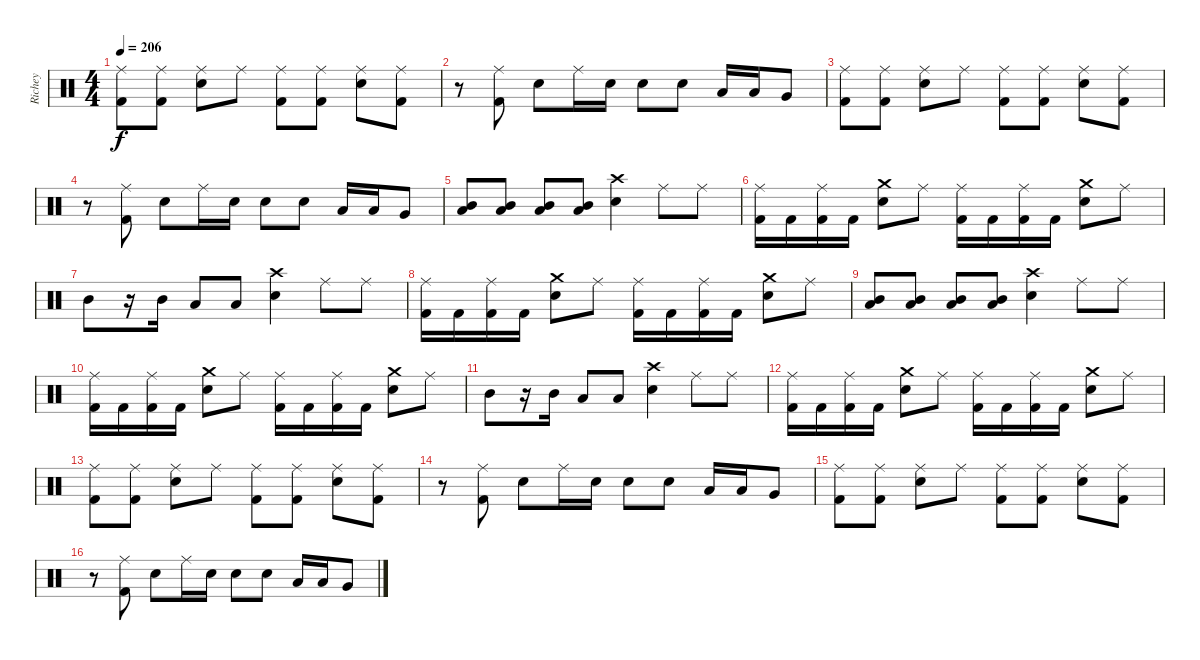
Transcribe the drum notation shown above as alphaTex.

\track ("Richey" "Richey") {instrument percussion}
\staff {score}
\articulation defaults
\ts (4 4)
\tempo 206
\clef neutral
\ks c
("Ride (middle)" "Kick (hit) 2").8{dy f} ("Ride (middle)" "Kick (hit) 2").8 ("Ride (middle)" "Snare (hit) 2").8 "Ride (middle)".8 ("Ride (middle)" "Kick (hit) 2").8 ("Ride (middle)" "Kick (hit) 2").8 ("Ride (middle)" "Snare (hit) 2").8 ("Ride (middle)" "Kick (hit) 2").8 |
r.8 ("Ride (middle)" "Kick (hit) 2").8 "Snare (hit) 2".8 "Ride (middle)".16 "Snare (hit) 2".16 "Snare (hit) 2".8 "Snare (hit) 2".8 "Low Tom (hit)".16 "Low Tom (hit)".16 "Very Low Tom (hit)".8 |
("Ride (middle)" "Kick (hit) 2").8 ("Ride (middle)" "Kick (hit) 2").8 ("Ride (middle)" "Snare (hit) 2").8 "Ride (middle)".8 ("Ride (middle)" "Kick (hit) 2").8 ("Ride (middle)" "Kick (hit) 2").8 ("Ride (middle)" "Snare (hit) 2").8 ("Ride (middle)" "Kick (hit) 2").8 |
r.8 ("Ride (middle)" "Kick (hit) 2").8 "Snare (hit) 2".8 "Ride (middle)".16 "Snare (hit) 2".16 "Snare (hit) 2".8 "Snare (hit) 2".8 "Low Tom (hit)".16 "Low Tom (hit)".16 "Very Low Tom (hit)".8 |
("Mid Tom (hit)" "Low Tom (hit)").8 ("Mid Tom (hit)" "Low Tom (hit)").8 ("Mid Tom (hit)" "Low Tom (hit)").8 ("Mid Tom (hit)" "Low Tom (hit)").8 ("Crash high (hit)" "Snare (hit) 2").4 "Ride (middle)".8 "Ride (middle)".8 |
("Ride (middle)" "Kick (hit) 2").16 "Kick (hit) 2".16 ("Ride (middle)" "Kick (hit) 2").16 "Kick (hit) 2".16 ("Crash medium (hit)" "Snare (hit) 2").8 "Ride (middle)".8 ("Ride (middle)" "Kick (hit) 2").16 "Kick (hit) 2".16 ("Ride (middle)" "Kick (hit) 2").16 "Kick (hit) 2".16 ("Crash medium (hit)" "Snare (hit) 2").8 "Ride (middle)".8 |
"Mid Tom (hit)".8 r.16 "Mid Tom (hit)".16 "Low Tom (hit)".8 "Low Tom (hit)".8 ("Crash high (hit)" "Snare (hit) 2").4 "Ride (middle)".8 "Ride (middle)".8 |
("Ride (middle)" "Kick (hit) 2").16 "Kick (hit) 2".16 ("Ride (middle)" "Kick (hit) 2").16 "Kick (hit) 2".16 ("Crash medium (hit)" "Snare (hit) 2").8 "Ride (middle)".8 ("Ride (middle)" "Kick (hit) 2").16 "Kick (hit) 2".16 ("Ride (middle)" "Kick (hit) 2").16 "Kick (hit) 2".16 ("Crash medium (hit)" "Snare (hit) 2").8 "Ride (middle)".8 |
("Mid Tom (hit)" "Low Tom (hit)").8 ("Mid Tom (hit)" "Low Tom (hit)").8 ("Mid Tom (hit)" "Low Tom (hit)").8 ("Mid Tom (hit)" "Low Tom (hit)").8 ("Crash high (hit)" "Snare (hit) 2").4 "Ride (middle)".8 "Ride (middle)".8 |
("Ride (middle)" "Kick (hit) 2").16 "Kick (hit) 2".16 ("Ride (middle)" "Kick (hit) 2").16 "Kick (hit) 2".16 ("Crash medium (hit)" "Snare (hit) 2").8 "Ride (middle)".8 ("Ride (middle)" "Kick (hit) 2").16 "Kick (hit) 2".16 ("Ride (middle)" "Kick (hit) 2").16 "Kick (hit) 2".16 ("Crash medium (hit)" "Snare (hit) 2").8 "Ride (middle)".8 |
"Mid Tom (hit)".8 r.16 "Mid Tom (hit)".16 "Low Tom (hit)".8 "Low Tom (hit)".8 ("Crash high (hit)" "Snare (hit) 2").4 "Ride (middle)".8 "Ride (middle)".8 |
("Ride (middle)" "Kick (hit) 2").16 "Kick (hit) 2".16 ("Ride (middle)" "Kick (hit) 2").16 "Kick (hit) 2".16 ("Crash medium (hit)" "Snare (hit) 2").8 "Ride (middle)".8 ("Ride (middle)" "Kick (hit) 2").16 "Kick (hit) 2".16 ("Ride (middle)" "Kick (hit) 2").16 "Kick (hit) 2".16 ("Crash medium (hit)" "Snare (hit) 2").8 "Ride (middle)".8 |
("Ride (middle)" "Kick (hit) 2").8 ("Ride (middle)" "Kick (hit) 2").8 ("Ride (middle)" "Snare (hit) 2").8 "Ride (middle)".8 ("Ride (middle)" "Kick (hit) 2").8 ("Ride (middle)" "Kick (hit) 2").8 ("Ride (middle)" "Snare (hit) 2").8 ("Ride (middle)" "Kick (hit) 2").8 |
r.8 ("Ride (middle)" "Kick (hit) 2").8 "Snare (hit) 2".8 "Ride (middle)".16 "Snare (hit) 2".16 "Snare (hit) 2".8 "Snare (hit) 2".8 "Low Tom (hit)".16 "Low Tom (hit)".16 "Very Low Tom (hit)".8 |
("Ride (middle)" "Kick (hit) 2").8 ("Ride (middle)" "Kick (hit) 2").8 ("Ride (middle)" "Snare (hit) 2").8 "Ride (middle)".8 ("Ride (middle)" "Kick (hit) 2").8 ("Ride (middle)" "Kick (hit) 2").8 ("Ride (middle)" "Snare (hit) 2").8 ("Ride (middle)" "Kick (hit) 2").8 |
r.8 ("Ride (middle)" "Kick (hit) 2").8 "Snare (hit) 2".8 "Ride (middle)".16 "Snare (hit) 2".16 "Snare (hit) 2".8 "Snare (hit) 2".8 "Low Tom (hit)".16 "Low Tom (hit)".16 "Very Low Tom (hit)".8
